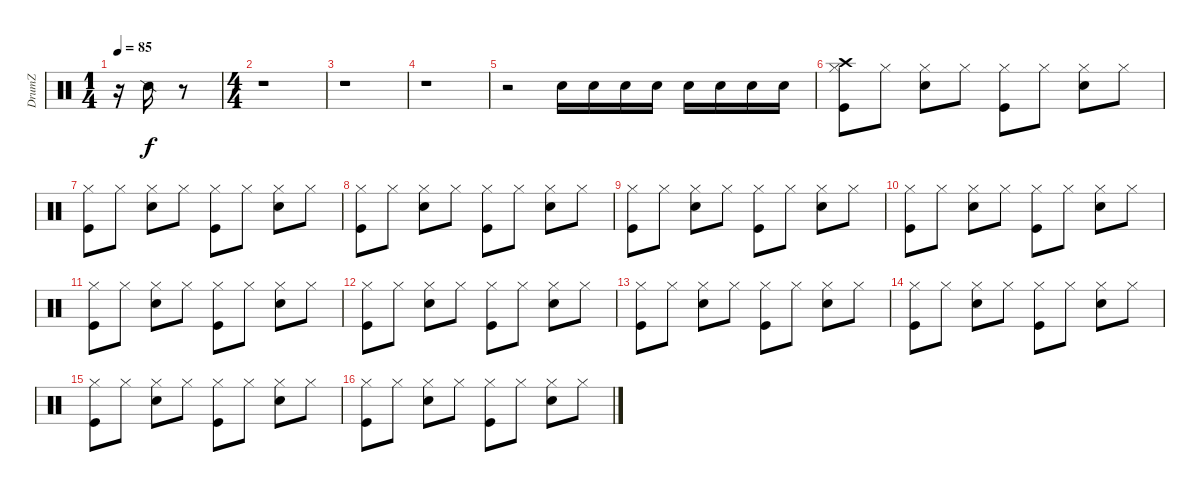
\track ("DrumZ" "DrumZ") {instrument percussion}
\staff {score}
\articulation defaults
\ts (1 4)
\tempo 85
\clef neutral
\ks c
r.16{dy f} "Snare (side stick) 2".16 r.8 |
\ts (4 4)
r.1 |
r.1 |
r.1 |
r.2 "Electric Snare (hit)".16 "Electric Snare (hit)".16 "Electric Snare (hit)".16 "Electric Snare (hit)".16 "Electric Snare (hit)".16 "Electric Snare (hit)".16 "Electric Snare (hit)".16 "Electric Snare (hit)".16 |
("Hi-Hat (closed)" "Crash high (hit)" "Kick (hit)").8 "Hi-Hat (closed)".8 ("Hi-Hat (closed)" "Electric Snare (hit)").8 "Hi-Hat (closed)".8 ("Hi-Hat (closed)" "Kick (hit)").8 "Hi-Hat (closed)".8 ("Hi-Hat (closed)" "Electric Snare (hit)").8 "Hi-Hat (closed)".8 |
("Hi-Hat (closed)" "Kick (hit)").8 "Hi-Hat (closed)".8 ("Hi-Hat (closed)" "Electric Snare (hit)").8 "Hi-Hat (closed)".8 ("Hi-Hat (closed)" "Kick (hit)").8 "Hi-Hat (closed)".8 ("Hi-Hat (closed)" "Electric Snare (hit)").8 "Hi-Hat (closed)".8 |
("Hi-Hat (closed)" "Kick (hit)").8 "Hi-Hat (closed)".8 ("Hi-Hat (closed)" "Electric Snare (hit)").8 "Hi-Hat (closed)".8 ("Hi-Hat (closed)" "Kick (hit)").8 "Hi-Hat (closed)".8 ("Hi-Hat (closed)" "Electric Snare (hit)").8 "Hi-Hat (closed)".8 |
("Hi-Hat (closed)" "Kick (hit)").8 "Hi-Hat (closed)".8 ("Hi-Hat (closed)" "Electric Snare (hit)").8 "Hi-Hat (closed)".8 ("Hi-Hat (closed)" "Kick (hit)").8 "Hi-Hat (closed)".8 ("Hi-Hat (closed)" "Electric Snare (hit)").8 "Hi-Hat (closed)".8 |
("Hi-Hat (closed)" "Kick (hit)").8 "Hi-Hat (closed)".8 ("Hi-Hat (closed)" "Electric Snare (hit)").8 "Hi-Hat (closed)".8 ("Hi-Hat (closed)" "Kick (hit)").8 "Hi-Hat (closed)".8 ("Hi-Hat (closed)" "Electric Snare (hit)").8 "Hi-Hat (closed)".8 |
("Hi-Hat (closed)" "Kick (hit)").8 "Hi-Hat (closed)".8 ("Hi-Hat (closed)" "Electric Snare (hit)").8 "Hi-Hat (closed)".8 ("Hi-Hat (closed)" "Kick (hit)").8 "Hi-Hat (closed)".8 ("Hi-Hat (closed)" "Electric Snare (hit)").8 "Hi-Hat (closed)".8 |
("Hi-Hat (closed)" "Kick (hit)").8 "Hi-Hat (closed)".8 ("Hi-Hat (closed)" "Electric Snare (hit)").8 "Hi-Hat (closed)".8 ("Hi-Hat (closed)" "Kick (hit)").8 "Hi-Hat (closed)".8 ("Hi-Hat (closed)" "Electric Snare (hit)").8 "Hi-Hat (closed)".8 |
("Hi-Hat (closed)" "Kick (hit)").8 "Hi-Hat (closed)".8 ("Hi-Hat (closed)" "Electric Snare (hit)").8 "Hi-Hat (closed)".8 ("Hi-Hat (closed)" "Kick (hit)").8 "Hi-Hat (closed)".8 ("Hi-Hat (closed)" "Electric Snare (hit)").8 "Hi-Hat (closed)".8 |
("Hi-Hat (closed)" "Kick (hit)").8 "Hi-Hat (closed)".8 ("Hi-Hat (closed)" "Electric Snare (hit)").8 "Hi-Hat (closed)".8 ("Hi-Hat (closed)" "Kick (hit)").8 "Hi-Hat (closed)".8 ("Hi-Hat (closed)" "Electric Snare (hit)").8 "Hi-Hat (closed)".8 |
("Hi-Hat (closed)" "Kick (hit)").8 "Hi-Hat (closed)".8 ("Hi-Hat (closed)" "Electric Snare (hit)").8 "Hi-Hat (closed)".8 ("Hi-Hat (closed)" "Kick (hit)").8 "Hi-Hat (closed)".8 ("Hi-Hat (closed)" "Electric Snare (hit)").8 "Hi-Hat (closed)".8 |
("Hi-Hat (closed)" "Kick (hit)").8 "Hi-Hat (closed)".8 ("Hi-Hat (closed)" "Electric Snare (hit)").8 "Hi-Hat (closed)".8 ("Hi-Hat (closed)" "Kick (hit)").8 "Hi-Hat (closed)".8 ("Hi-Hat (closed)" "Electric Snare (hit)").8 "Hi-Hat (closed)".8
